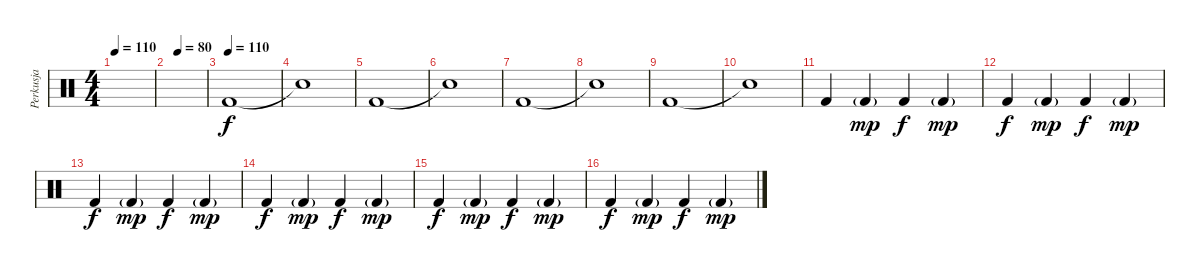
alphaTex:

\track ("Perkusja" "Perkusja") {instrument percussion}
\staff {score}
\articulation defaults
\ts (4 4)
\tempo 110
\clef neutral
\ks c
|
\tempo (80 0.25)
|
\tempo (110)
"Kick (hit) 2".1 |
"Snare (hit)"{t}.1 |
"Kick (hit) 2".1 |
"Snare (hit)"{t}.1 |
"Kick (hit) 2".1 |
"Snare (hit)"{t}.1 |
"Kick (hit) 2".1 |
"Snare (hit)"{t}.1 |
"Kick (hit) 2".4 "Kick (hit) 2"{g}.4{dy mp} "Kick (hit) 2".4{dy f} "Kick (hit) 2"{g}.4{dy mp} |
"Kick (hit) 2".4{dy f} "Kick (hit) 2"{g}.4{dy mp} "Kick (hit) 2".4{dy f} "Kick (hit) 2"{g}.4{dy mp} |
"Kick (hit) 2".4{dy f} "Kick (hit) 2"{g}.4{dy mp} "Kick (hit) 2".4{dy f} "Kick (hit) 2"{g}.4{dy mp} |
"Kick (hit) 2".4{dy f} "Kick (hit) 2"{g}.4{dy mp} "Kick (hit) 2".4{dy f} "Kick (hit) 2"{g}.4{dy mp} |
"Kick (hit) 2".4{dy f} "Kick (hit) 2"{g}.4{dy mp} "Kick (hit) 2".4{dy f} "Kick (hit) 2"{g}.4{dy mp} |
"Kick (hit) 2".4{dy f} "Kick (hit) 2"{g}.4{dy mp} "Kick (hit) 2".4{dy f} "Kick (hit) 2"{g}.4{dy mp}
